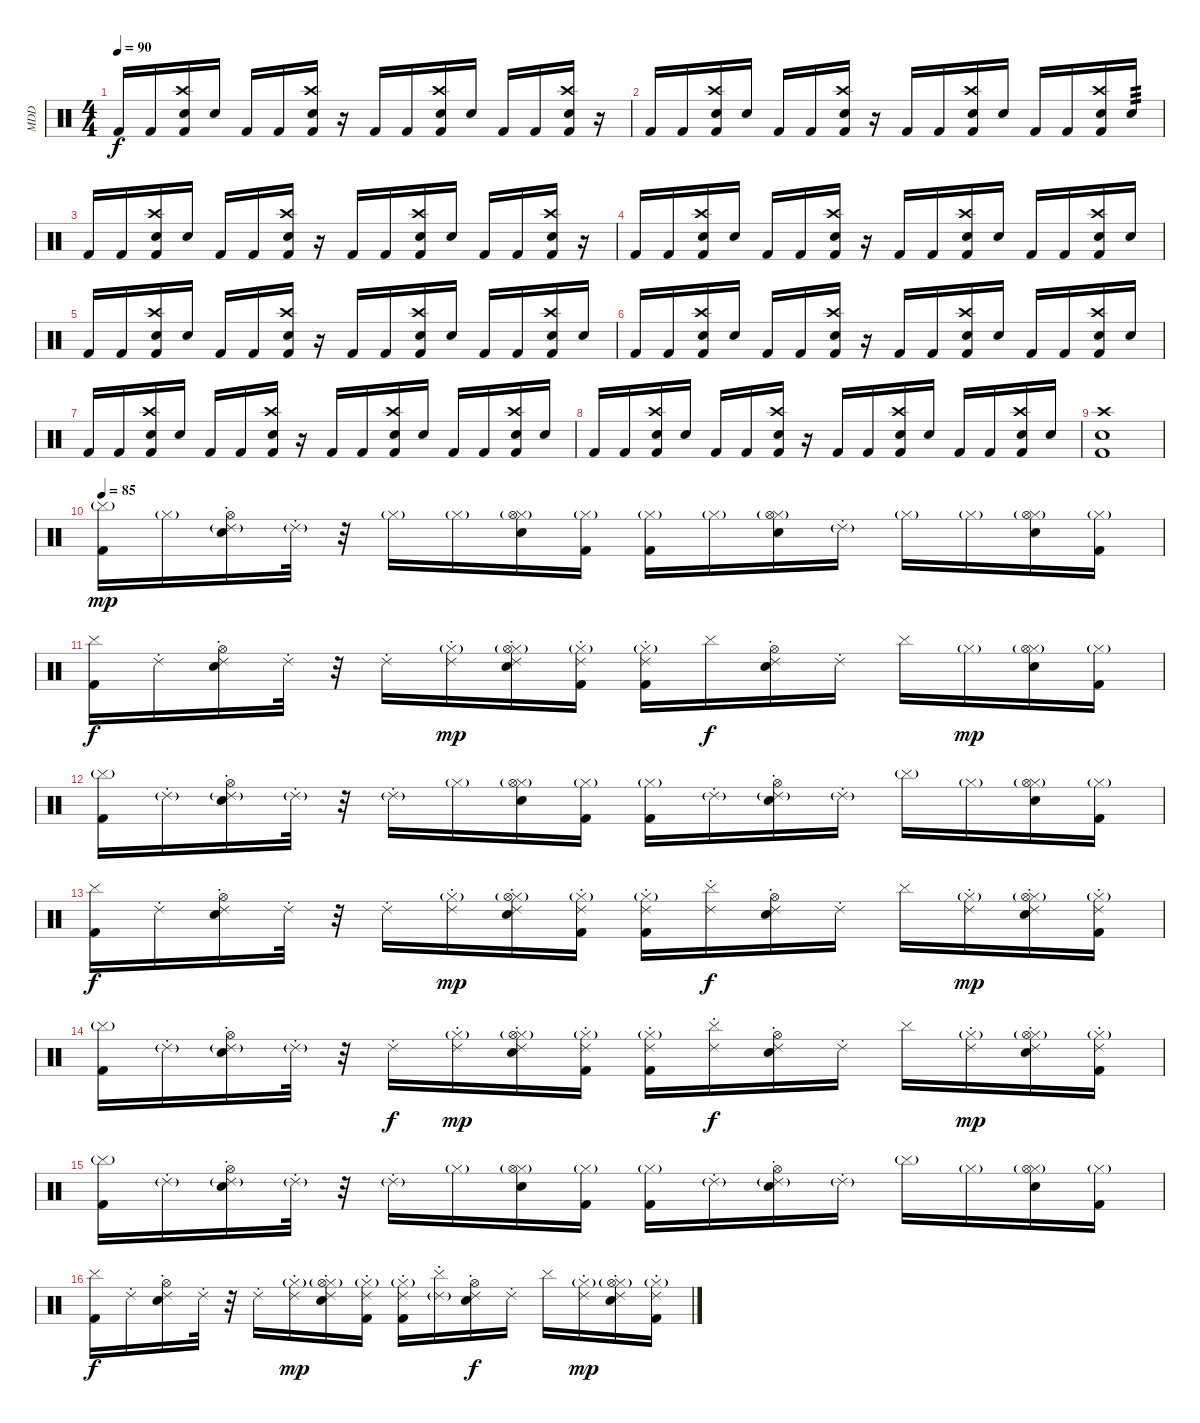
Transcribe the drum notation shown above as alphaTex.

\track ("MDD" "MDD") {instrument percussion}
\staff {score}
\articulation defaults
\ts (4 4)
\tempo 90
\clef neutral
\ks c "Kick (hit) 2".16{dy f} "Kick (hit) 2".16
("Crash high (hit)" "Kick (hit) 2" "Snare (hit) 2").16 "Snare (hit) 2".16 "Kick (hit) 2".16 "Kick (hit) 2".16 ("Crash high (hit)" "Kick (hit) 2" "Snare (hit) 2").16 r.16 "Kick (hit) 2".16 "Kick (hit) 2".16 ("Crash high (hit)" "Kick (hit) 2" "Snare (hit) 2").16 "Snare (hit) 2".16 "Kick (hit) 2".16 "Kick (hit) 2".16 ("Crash high (hit)" "Kick (hit) 2" "Snare (hit) 2").16 r.16 |
"Kick (hit) 2".16 "Kick (hit) 2".16 ("Crash high (hit)" "Kick (hit) 2" "Snare (hit) 2").16 "Snare (hit) 2".16 "Kick (hit) 2".16 "Kick (hit) 2".16 ("Crash high (hit)" "Kick (hit) 2" "Snare (hit) 2").16 r.16 "Kick (hit) 2".16 "Kick (hit) 2".16 ("Crash high (hit)" "Kick (hit) 2" "Snare (hit) 2").16 "Snare (hit) 2".16 "Kick (hit) 2".16 "Kick (hit) 2".16 ("Crash high (hit)" "Kick (hit) 2" "Snare (hit) 2").16 "Snare (hit) 2".16{tp 3} |
"Kick (hit) 2".16 "Kick (hit) 2".16 ("Crash high (hit)" "Kick (hit) 2" "Snare (hit) 2").16 "Snare (hit) 2".16 "Kick (hit) 2".16 "Kick (hit) 2".16 ("Crash high (hit)" "Kick (hit) 2" "Snare (hit) 2").16 r.16 "Kick (hit) 2".16 "Kick (hit) 2".16 ("Crash high (hit)" "Kick (hit) 2" "Snare (hit) 2").16 "Snare (hit) 2".16 "Kick (hit) 2".16 "Kick (hit) 2".16 ("Crash high (hit)" "Kick (hit) 2" "Snare (hit) 2").16 r.16 |
"Kick (hit) 2".16 "Kick (hit) 2".16 ("Crash high (hit)" "Kick (hit) 2" "Snare (hit) 2").16 "Snare (hit) 2".16 "Kick (hit) 2".16 "Kick (hit) 2".16 ("Crash high (hit)" "Kick (hit) 2" "Snare (hit) 2").16 r.16 "Kick (hit) 2".16 "Kick (hit) 2".16 ("Crash high (hit)" "Kick (hit) 2" "Snare (hit) 2").16 "Snare (hit) 2".16 "Kick (hit) 2".16 "Kick (hit) 2".16 ("Crash high (hit)" "Kick (hit) 2" "Snare (hit) 2").16 "Snare (hit) 2".16 |
"Kick (hit) 2".16 "Kick (hit) 2".16 ("Crash high (hit)" "Kick (hit) 2" "Snare (hit) 2").16 "Snare (hit) 2".16 "Kick (hit) 2".16 "Kick (hit) 2".16 ("Crash high (hit)" "Kick (hit) 2" "Snare (hit) 2").16 r.16 "Kick (hit) 2".16 "Kick (hit) 2".16 ("Crash high (hit)" "Kick (hit) 2" "Snare (hit) 2").16 "Snare (hit) 2".16 "Kick (hit) 2".16 "Kick (hit) 2".16 ("Crash high (hit)" "Kick (hit) 2" "Snare (hit) 2").16 "Snare (hit) 2".16 |
"Kick (hit) 2".16 "Kick (hit) 2".16 ("Crash high (hit)" "Kick (hit) 2" "Snare (hit) 2").16 "Snare (hit) 2".16 "Kick (hit) 2".16 "Kick (hit) 2".16 ("Crash high (hit)" "Kick (hit) 2" "Snare (hit) 2").16 r.16 "Kick (hit) 2".16 "Kick (hit) 2".16 ("Crash high (hit)" "Kick (hit) 2" "Snare (hit) 2").16 "Snare (hit) 2".16 "Kick (hit) 2".16 "Kick (hit) 2".16 ("Crash high (hit)" "Kick (hit) 2" "Snare (hit) 2").16 "Snare (hit) 2".16 |
"Kick (hit) 2".16 "Kick (hit) 2".16 ("Crash high (hit)" "Kick (hit) 2" "Snare (hit) 2").16 "Snare (hit) 2".16 "Kick (hit) 2".16 "Kick (hit) 2".16 ("Crash high (hit)" "Kick (hit) 2" "Snare (hit) 2").16 r.16 "Kick (hit) 2".16 "Kick (hit) 2".16 ("Crash high (hit)" "Kick (hit) 2" "Snare (hit) 2").16 "Snare (hit) 2".16 "Kick (hit) 2".16 "Kick (hit) 2".16 ("Crash high (hit)" "Kick (hit) 2" "Snare (hit) 2").16 "Snare (hit) 2".16 |
"Kick (hit) 2".16 "Kick (hit) 2".16 ("Crash high (hit)" "Kick (hit) 2" "Snare (hit) 2").16 "Snare (hit) 2".16 "Kick (hit) 2".16 "Kick (hit) 2".16 ("Crash high (hit)" "Kick (hit) 2" "Snare (hit) 2").16 r.16 "Kick (hit) 2".16 "Kick (hit) 2".16 ("Crash high (hit)" "Kick (hit) 2" "Snare (hit) 2").16 "Snare (hit) 2".16 "Kick (hit) 2".16 "Kick (hit) 2".16 ("Crash high (hit)" "Kick (hit) 2" "Snare (hit) 2").16 "Snare (hit) 2".16 |
("Crash high (hit)" "Kick (hit) 2" "Snare (hit) 2").1 |
\tempo 83
\tempo 85
("Cymbal (hit)"{g} "Kick (hit) 2").16{dy mp} "Hi-Hat (closed)"{g}.16 ("Ride (choke) 2"{g} "Snare (hit) 2" "Hi-Hat (open)").16 "Ride (choke) 2"{g}.32 r.32 "Hi-Hat (closed)"{g}.16 "Hi-Hat (closed)"{g}.16 ("Hi-Hat (closed)"{g} "Snare (hit) 2" "Hi-Hat (open)").16 ("Hi-Hat (closed)"{g} "Kick (hit) 2").16 ("Hi-Hat (closed)"{g} "Kick (hit) 2").16 "Hi-Hat (closed)"{g}.16 ("Hi-Hat (closed)"{g} "Snare (hit) 2" "Hi-Hat (open)").16 "Ride (choke) 2"{g}.16 "Hi-Hat (closed)"{g}.16 "Hi-Hat (closed)"{g}.16 ("Hi-Hat (closed)"{g} "Snare (hit) 2" "Hi-Hat (open)").16 ("Hi-Hat (closed)"{g} "Kick (hit) 2").16 |
("Cymbal (hit)" "Kick (hit) 2").16{dy f} "Ride (choke) 2".16 ("Ride (choke) 2" "Snare (hit) 2" "Hi-Hat (open)").16 "Ride (choke) 2".32 r.32 "Ride (choke) 2".16 ("Hi-Hat (closed)"{g} "Ride (choke) 2").16{dy mp} ("Hi-Hat (closed)"{g} "Ride (choke) 2" "Snare (hit) 2" "Hi-Hat (open)").16 ("Hi-Hat (closed)"{g} "Ride (choke) 2" "Kick (hit) 2").16 ("Hi-Hat (closed)"{g} "Ride (choke) 2" "Kick (hit) 2").16 "Cymbal (hit)".16{dy f} ("Ride (choke) 2" "Snare (hit) 2" "Hi-Hat (open)").16 "Ride (choke) 2".16 "Cymbal (hit)".16 "Hi-Hat (closed)"{g}.16{dy mp} ("Hi-Hat (closed)"{g} "Snare (hit) 2" "Hi-Hat (open)").16 ("Hi-Hat (closed)"{g} "Kick (hit) 2").16 |
("Cymbal (hit)"{g} "Kick (hit) 2").16 "Ride (choke) 2"{g}.16 ("Ride (choke) 2"{g} "Snare (hit) 2" "Hi-Hat (open)").16 "Ride (choke) 2"{g}.32 r.32 "Ride (choke) 2"{g}.16 "Hi-Hat (closed)"{g}.16 ("Hi-Hat (closed)"{g} "Snare (hit) 2" "Hi-Hat (open)").16 ("Hi-Hat (closed)"{g} "Kick (hit) 2").16 ("Hi-Hat (closed)"{g} "Kick (hit) 2").16 "Ride (choke) 2"{g}.16 ("Ride (choke) 2"{g} "Snare (hit) 2" "Hi-Hat (open)").16 "Ride (choke) 2"{g}.16 "Cymbal (hit)"{g}.16 "Hi-Hat (closed)"{g}.16 ("Hi-Hat (closed)"{g} "Snare (hit) 2" "Hi-Hat (open)").16 ("Hi-Hat (closed)"{g} "Kick (hit) 2").16 |
("Cymbal (hit)" "Kick (hit) 2").16{dy f} "Ride (choke) 2".16 ("Ride (choke) 2" "Snare (hit) 2" "Hi-Hat (open)").16 "Ride (choke) 2".32 r.32 "Ride (choke) 2".16 ("Hi-Hat (closed)"{g} "Ride (choke) 2").16{dy mp} ("Hi-Hat (closed)"{g} "Ride (choke) 2" "Snare (hit) 2" "Hi-Hat (open)").16 ("Hi-Hat (closed)"{g} "Ride (choke) 2" "Kick (hit) 2").16 ("Hi-Hat (closed)"{g} "Ride (choke) 2" "Kick (hit) 2").16 ("Ride (choke) 2" "Cymbal (hit)").16{dy f} ("Ride (choke) 2" "Snare (hit) 2" "Hi-Hat (open)").16 "Ride (choke) 2".16 "Cymbal (hit)".16 ("Hi-Hat (closed)"{g} "Ride (choke) 2").16{dy mp} ("Hi-Hat (closed)"{g} "Ride (choke) 2" "Snare (hit) 2" "Hi-Hat (open)").16 ("Hi-Hat (closed)"{g} "Ride (choke) 2" "Kick (hit) 2").16 |
("Cymbal (hit)"{g} "Kick (hit) 2").16 "Ride (choke) 2"{g}.16 ("Ride (choke) 2"{g} "Snare (hit) 2" "Hi-Hat (open)").16 "Ride (choke) 2"{g}.32 r.32 "Ride (choke) 2".16{dy f} ("Hi-Hat (closed)"{g} "Ride (choke) 2").16{dy mp} ("Hi-Hat (closed)"{g} "Ride (choke) 2" "Snare (hit) 2" "Hi-Hat (open)").16 ("Hi-Hat (closed)"{g} "Ride (choke) 2" "Kick (hit) 2").16 ("Hi-Hat (closed)"{g} "Ride (choke) 2" "Kick (hit) 2").16 ("Ride (choke) 2" "Cymbal (hit)").16{dy f} ("Ride (choke) 2" "Snare (hit) 2" "Hi-Hat (open)").16 "Ride (choke) 2".16 "Cymbal (hit)".16 ("Hi-Hat (closed)"{g} "Ride (choke) 2").16{dy mp} ("Hi-Hat (closed)"{g} "Ride (choke) 2" "Snare (hit) 2" "Hi-Hat (open)").16 ("Hi-Hat (closed)"{g} "Ride (choke) 2" "Kick (hit) 2").16 |
("Cymbal (hit)"{g} "Kick (hit) 2").16 "Ride (choke) 2"{g}.16 ("Ride (choke) 2"{g} "Snare (hit) 2" "Hi-Hat (open)").16 "Ride (choke) 2"{g}.32 r.32 "Ride (choke) 2"{g}.16 "Hi-Hat (closed)"{g}.16 ("Hi-Hat (closed)"{g} "Snare (hit) 2" "Hi-Hat (open)").16 ("Hi-Hat (closed)"{g} "Kick (hit) 2").16 ("Hi-Hat (closed)"{g} "Kick (hit) 2").16 "Ride (choke) 2"{g}.16 ("Ride (choke) 2"{g} "Snare (hit) 2" "Hi-Hat (open)").16 "Ride (choke) 2"{g}.16 "Cymbal (hit)"{g}.16 "Hi-Hat (closed)"{g}.16 ("Hi-Hat (closed)"{g} "Snare (hit) 2" "Hi-Hat (open)").16 ("Hi-Hat (closed)"{g} "Kick (hit) 2").16 |
("Cymbal (hit)" "Kick (hit) 2").16{dy f} "Ride (choke) 2".16 ("Ride (choke) 2" "Snare (hit) 2" "Hi-Hat (open)").16 "Ride (choke) 2".32 r.32 "Ride (choke) 2".16 ("Hi-Hat (closed)"{g} "Ride (choke) 2").16{dy mp} ("Hi-Hat (closed)"{g} "Ride (choke) 2" "Snare (hit) 2" "Hi-Hat (open)").16 ("Hi-Hat (closed)"{g} "Ride (choke) 2" "Kick (hit) 2").16 ("Hi-Hat (closed)"{g} "Ride (choke) 2" "Kick (hit) 2").16 ("Ride (choke) 2"{g} "Cymbal (hit)").16 ("Ride (choke) 2" "Snare (hit) 2" "Hi-Hat (open)").16{dy f} "Ride (choke) 2".16 "Cymbal (hit)".16 ("Hi-Hat (closed)"{g} "Ride (choke) 2").16{dy mp} ("Hi-Hat (closed)"{g} "Ride (choke) 2" "Snare (hit) 2" "Hi-Hat (open)").16 ("Hi-Hat (closed)"{g} "Ride (choke) 2" "Kick (hit) 2").16
